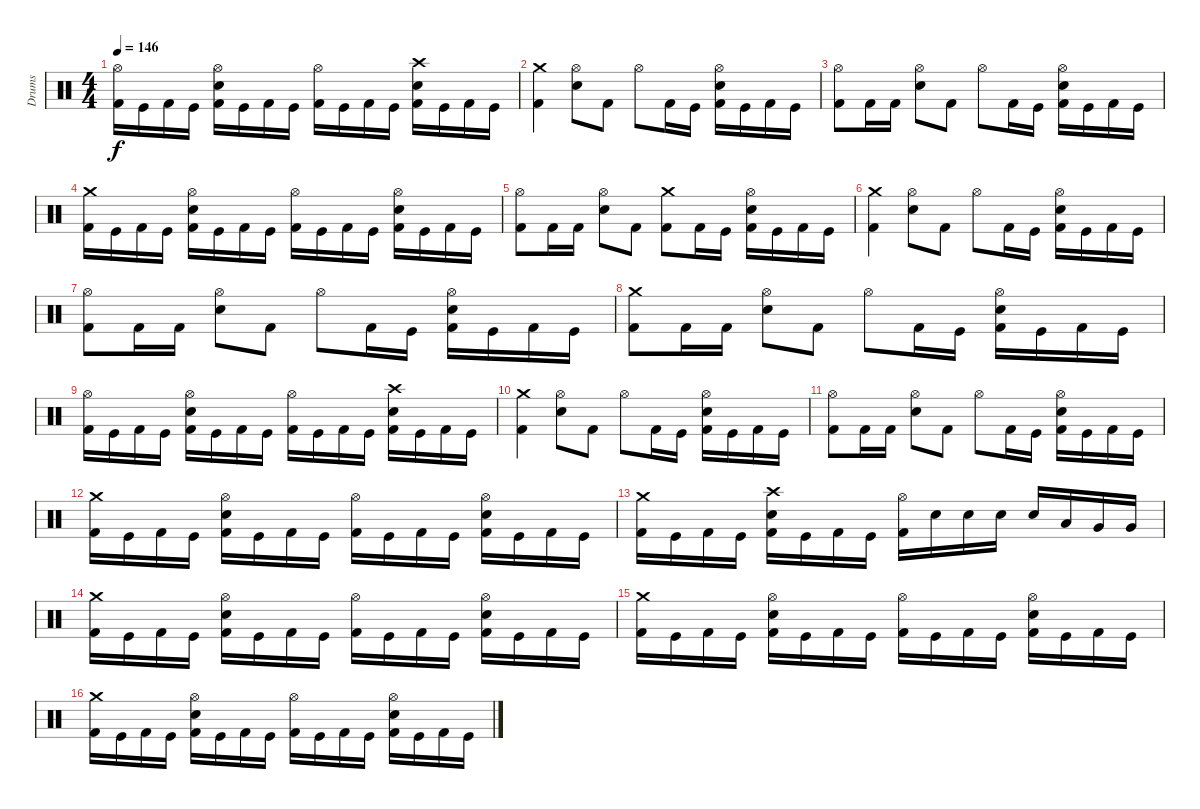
\track ("Drums" "Drums") {instrument percussion}
\staff {score}
\articulation defaults
\ts (4 4)
\tempo 146
\clef neutral
\ks c
("Hi-Hat (open)" "Kick (hit) 2").16{dy f} "Kick (hit)".16 "Kick (hit) 2".16 "Kick (hit)".16 ("Hi-Hat (open)" "Snare (hit) 2" "Kick (hit) 2").16 "Kick (hit)".16 "Kick (hit) 2".16 "Kick (hit)".16 ("Hi-Hat (open)" "Kick (hit) 2").16 "Kick (hit)".16 "Kick (hit) 2".16 "Kick (hit)".16 ("Crash high (hit)" "Snare (hit) 2" "Kick (hit) 2").16 "Kick (hit)".16 "Kick (hit) 2".16 "Kick (hit)".16 |
("Crash medium (hit)" "Kick (hit) 2").4 ("Hi-Hat (open)" "Snare (hit) 2").8 "Kick (hit) 2".8 "Hi-Hat (open)".8 "Kick (hit) 2".16 "Kick (hit)".16 ("Hi-Hat (open)" "Snare (hit) 2" "Kick (hit) 2").16 "Kick (hit)".16 "Kick (hit) 2".16 "Kick (hit)".16 |
("Hi-Hat (open)" "Kick (hit) 2").8 "Kick (hit) 2".16 "Kick (hit) 2".16 ("Hi-Hat (open)" "Snare (hit) 2").8 "Kick (hit) 2".8 "Hi-Hat (open)".8 "Kick (hit) 2".16 "Kick (hit)".16 ("Hi-Hat (open)" "Snare (hit) 2" "Kick (hit) 2").16 "Kick (hit)".16 "Kick (hit) 2".16 "Kick (hit)".16 |
("Crash medium (hit)" "Kick (hit) 2").16 "Kick (hit)".16 "Kick (hit) 2".16 "Kick (hit)".16 ("Hi-Hat (open)" "Snare (hit) 2" "Kick (hit) 2").16 "Kick (hit)".16 "Kick (hit) 2".16 "Kick (hit)".16 ("Hi-Hat (open)" "Kick (hit) 2").16 "Kick (hit)".16 "Kick (hit) 2".16 "Kick (hit)".16 ("Hi-Hat (open)" "Snare (hit) 2" "Kick (hit) 2").16 "Kick (hit)".16 "Kick (hit) 2".16 "Kick (hit)".16 |
("Hi-Hat (open)" "Kick (hit) 2").8 "Kick (hit) 2".16 "Kick (hit) 2".16 ("Hi-Hat (open)" "Snare (hit) 2").8 "Kick (hit) 2".8 ("Crash medium (hit)" "Kick (hit) 2").8 "Kick (hit) 2".16 "Kick (hit)".16 ("Hi-Hat (open)" "Snare (hit) 2" "Kick (hit) 2").16 "Kick (hit)".16 "Kick (hit) 2".16 "Kick (hit)".16 |
("Crash medium (hit)" "Kick (hit) 2").4 ("Hi-Hat (open)" "Snare (hit) 2").8 "Kick (hit) 2".8 "Hi-Hat (open)".8 "Kick (hit) 2".16 "Kick (hit)".16 ("Hi-Hat (open)" "Snare (hit) 2" "Kick (hit) 2").16 "Kick (hit)".16 "Kick (hit) 2".16 "Kick (hit)".16 |
("Hi-Hat (open)" "Kick (hit) 2").8 "Kick (hit) 2".16 "Kick (hit) 2".16 ("Hi-Hat (open)" "Snare (hit) 2").8 "Kick (hit) 2".8 "Hi-Hat (open)".8 "Kick (hit) 2".16 "Kick (hit)".16 ("Hi-Hat (open)" "Snare (hit) 2" "Kick (hit) 2").16 "Kick (hit)".16 "Kick (hit) 2".16 "Kick (hit)".16 |
("Crash medium (hit)" "Kick (hit) 2").8 "Kick (hit) 2".16 "Kick (hit) 2".16 ("Hi-Hat (open)" "Snare (hit) 2").8 "Kick (hit) 2".8 "Hi-Hat (open)".8 "Kick (hit) 2".16 "Kick (hit)".16 ("Hi-Hat (open)" "Snare (hit) 2" "Kick (hit) 2").16 "Kick (hit)".16 "Kick (hit) 2".16 "Kick (hit)".16 |
("Hi-Hat (open)" "Kick (hit) 2").16 "Kick (hit)".16 "Kick (hit) 2".16 "Kick (hit)".16 ("Hi-Hat (open)" "Snare (hit) 2" "Kick (hit) 2").16 "Kick (hit)".16 "Kick (hit) 2".16 "Kick (hit)".16 ("Hi-Hat (open)" "Kick (hit) 2").16 "Kick (hit)".16 "Kick (hit) 2".16 "Kick (hit)".16 ("Crash high (hit)" "Snare (hit) 2" "Kick (hit) 2").16 "Kick (hit)".16 "Kick (hit) 2".16 "Kick (hit)".16 |
("Crash medium (hit)" "Kick (hit) 2").4 ("Hi-Hat (open)" "Snare (hit) 2").8 "Kick (hit) 2".8 "Hi-Hat (open)".8 "Kick (hit) 2".16 "Kick (hit)".16 ("Hi-Hat (open)" "Snare (hit) 2" "Kick (hit) 2").16 "Kick (hit)".16 "Kick (hit) 2".16 "Kick (hit)".16 |
("Hi-Hat (open)" "Kick (hit) 2").8 "Kick (hit) 2".16 "Kick (hit) 2".16 ("Hi-Hat (open)" "Snare (hit) 2").8 "Kick (hit) 2".8 "Hi-Hat (open)".8 "Kick (hit) 2".16 "Kick (hit)".16 ("Hi-Hat (open)" "Snare (hit) 2" "Kick (hit) 2").16 "Kick (hit)".16 "Kick (hit) 2".16 "Kick (hit)".16 |
("Crash medium (hit)" "Kick (hit) 2").16 "Kick (hit)".16 "Kick (hit) 2".16 "Kick (hit)".16 ("Hi-Hat (open)" "Snare (hit) 2" "Kick (hit) 2").16 "Kick (hit)".16 "Kick (hit) 2".16 "Kick (hit)".16 ("Hi-Hat (open)" "Kick (hit) 2").16 "Kick (hit)".16 "Kick (hit) 2".16 "Kick (hit)".16 ("Hi-Hat (open)" "Snare (hit) 2" "Kick (hit) 2").16 "Kick (hit)".16 "Kick (hit) 2".16 "Kick (hit)".16 |
("Crash medium (hit)" "Kick (hit) 2").16 "Kick (hit)".16 "Kick (hit) 2".16 "Kick (hit)".16 ("Crash high (hit)" "Snare (hit) 2" "Kick (hit) 2").16 "Kick (hit)".16 "Kick (hit) 2".16 "Kick (hit)".16 ("Hi-Hat (open)" "Kick (hit) 2").16 "Snare (hit) 2".16 "Snare (hit) 2".16 "Snare (hit) 2".16 "Snare (hit) 2".16 "Low Tom (hit)".16 "Very Low Tom (hit)".16 "Very Low Tom (hit)".16 |
("Crash medium (hit)" "Kick (hit) 2").16 "Kick (hit)".16 "Kick (hit) 2".16 "Kick (hit)".16 ("Hi-Hat (open)" "Snare (hit) 2" "Kick (hit) 2").16 "Kick (hit)".16 "Kick (hit) 2".16 "Kick (hit)".16 ("Hi-Hat (open)" "Kick (hit) 2").16 "Kick (hit)".16 "Kick (hit) 2".16 "Kick (hit)".16 ("Hi-Hat (open)" "Snare (hit) 2" "Kick (hit) 2").16 "Kick (hit)".16 "Kick (hit) 2".16 "Kick (hit)".16 |
("Crash medium (hit)" "Kick (hit) 2").16 "Kick (hit)".16 "Kick (hit) 2".16 "Kick (hit)".16 ("Hi-Hat (open)" "Snare (hit) 2" "Kick (hit) 2").16 "Kick (hit)".16 "Kick (hit) 2".16 "Kick (hit)".16 ("Hi-Hat (open)" "Kick (hit) 2").16 "Kick (hit)".16 "Kick (hit) 2".16 "Kick (hit)".16 ("Hi-Hat (open)" "Snare (hit) 2" "Kick (hit) 2").16 "Kick (hit)".16 "Kick (hit) 2".16 "Kick (hit)".16 |
("Crash medium (hit)" "Kick (hit) 2").16 "Kick (hit)".16 "Kick (hit) 2".16 "Kick (hit)".16 ("Hi-Hat (open)" "Snare (hit) 2" "Kick (hit) 2").16 "Kick (hit)".16 "Kick (hit) 2".16 "Kick (hit)".16 ("Hi-Hat (open)" "Kick (hit) 2").16 "Kick (hit)".16 "Kick (hit) 2".16 "Kick (hit)".16 ("Hi-Hat (open)" "Snare (hit) 2" "Kick (hit) 2").16 "Kick (hit)".16 "Kick (hit) 2".16 "Kick (hit)".16
